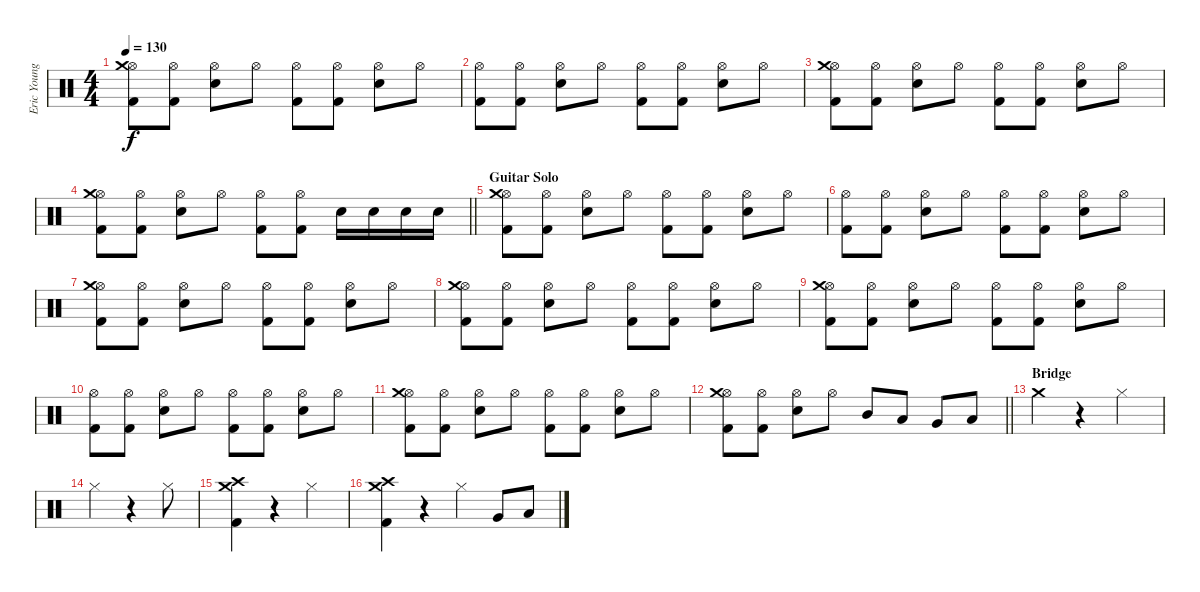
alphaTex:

\track ("Eric Young (Drums)" "Eric Young") {instrument percussion}
\staff {score}
\articulation defaults
\ts (4 4)
\tempo 130
\clef neutral
\ks c
("Hi-Hat (open)" "Kick (hit) 2" "Crash medium (hit)").8{dy f} ("Hi-Hat (open)" "Kick (hit) 2").8 ("Hi-Hat (open)" "Snare (hit) 2").8 "Hi-Hat (open)".8 ("Hi-Hat (open)" "Kick (hit) 2").8 ("Hi-Hat (open)" "Kick (hit) 2").8 ("Hi-Hat (open)" "Snare (hit) 2").8 "Hi-Hat (open)".8 |
("Hi-Hat (open)" "Kick (hit) 2").8 ("Hi-Hat (open)" "Kick (hit) 2").8 ("Hi-Hat (open)" "Snare (hit) 2").8 "Hi-Hat (open)".8 ("Hi-Hat (open)" "Kick (hit) 2").8 ("Hi-Hat (open)" "Kick (hit) 2").8 ("Hi-Hat (open)" "Snare (hit) 2").8 "Hi-Hat (open)".8 |
("Hi-Hat (open)" "Kick (hit) 2" "Crash medium (hit)").8 ("Hi-Hat (open)" "Kick (hit) 2").8 ("Hi-Hat (open)" "Snare (hit) 2").8 "Hi-Hat (open)".8 ("Hi-Hat (open)" "Kick (hit) 2").8 ("Hi-Hat (open)" "Kick (hit) 2").8 ("Hi-Hat (open)" "Snare (hit) 2").8 "Hi-Hat (open)".8 |
\barLineRight lightlight
("Hi-Hat (open)" "Kick (hit) 2" "Crash medium (hit)").8 ("Hi-Hat (open)" "Kick (hit) 2").8 ("Hi-Hat (open)" "Snare (hit) 2").8 "Hi-Hat (open)".8 ("Hi-Hat (open)" "Kick (hit) 2").8 ("Hi-Hat (open)" "Kick (hit) 2").8 "Snare (hit) 2".16 "Snare (hit) 2".16 "Snare (hit) 2".16 "Snare (hit) 2".16 |
\section ("" "Guitar Solo")
("Hi-Hat (open)" "Kick (hit) 2" "Crash medium (hit)").8 ("Hi-Hat (open)" "Kick (hit) 2").8 ("Hi-Hat (open)" "Snare (hit) 2").8 "Hi-Hat (open)".8 ("Hi-Hat (open)" "Kick (hit) 2").8 ("Hi-Hat (open)" "Kick (hit) 2").8 ("Hi-Hat (open)" "Snare (hit) 2").8 "Hi-Hat (open)".8 |
("Hi-Hat (open)" "Kick (hit) 2").8 ("Hi-Hat (open)" "Kick (hit) 2").8 ("Hi-Hat (open)" "Snare (hit) 2").8 "Hi-Hat (open)".8 ("Hi-Hat (open)" "Kick (hit) 2").8 ("Hi-Hat (open)" "Kick (hit) 2").8 ("Hi-Hat (open)" "Snare (hit) 2").8 "Hi-Hat (open)".8 |
("Hi-Hat (open)" "Kick (hit) 2" "Crash medium (hit)").8 ("Hi-Hat (open)" "Kick (hit) 2").8 ("Hi-Hat (open)" "Snare (hit) 2").8 "Hi-Hat (open)".8 ("Hi-Hat (open)" "Kick (hit) 2").8 ("Hi-Hat (open)" "Kick (hit) 2").8 ("Hi-Hat (open)" "Snare (hit) 2").8 "Hi-Hat (open)".8 |
("Hi-Hat (open)" "Kick (hit) 2" "Crash medium (hit)").8 ("Hi-Hat (open)" "Kick (hit) 2").8 ("Hi-Hat (open)" "Snare (hit) 2").8 "Hi-Hat (open)".8 ("Hi-Hat (open)" "Kick (hit) 2").8 ("Hi-Hat (open)" "Kick (hit) 2").8 ("Hi-Hat (open)" "Snare (hit) 2").8 "Hi-Hat (open)".8 |
("Hi-Hat (open)" "Kick (hit) 2" "Crash medium (hit)").8 ("Hi-Hat (open)" "Kick (hit) 2").8 ("Hi-Hat (open)" "Snare (hit) 2").8 "Hi-Hat (open)".8 ("Hi-Hat (open)" "Kick (hit) 2").8 ("Hi-Hat (open)" "Kick (hit) 2").8 ("Hi-Hat (open)" "Snare (hit) 2").8 "Hi-Hat (open)".8 |
("Hi-Hat (open)" "Kick (hit) 2").8 ("Hi-Hat (open)" "Kick (hit) 2").8 ("Hi-Hat (open)" "Snare (hit) 2").8 "Hi-Hat (open)".8 ("Hi-Hat (open)" "Kick (hit) 2").8 ("Hi-Hat (open)" "Kick (hit) 2").8 ("Hi-Hat (open)" "Snare (hit) 2").8 "Hi-Hat (open)".8 |
("Hi-Hat (open)" "Kick (hit) 2" "Crash medium (hit)").8 ("Hi-Hat (open)" "Kick (hit) 2").8 ("Hi-Hat (open)" "Snare (hit) 2").8 "Hi-Hat (open)".8 ("Hi-Hat (open)" "Kick (hit) 2").8 ("Hi-Hat (open)" "Kick (hit) 2").8 ("Hi-Hat (open)" "Snare (hit) 2").8 "Hi-Hat (open)".8 |
\barLineRight lightlight
("Hi-Hat (open)" "Kick (hit) 2" "Crash medium (hit)").8 ("Hi-Hat (open)" "Kick (hit) 2").8 ("Hi-Hat (open)" "Snare (hit) 2").8 "Hi-Hat (open)".8 "Mid Tom (hit)".8 "Low Tom (hit)".8 "Very Low Tom (hit)".8 "Low Floor Tom (hit)".8 |
\section ("" "Bridge")
"Crash medium (hit)".4 r.4 "Hi-Hat (closed)".4 |
"Hi-Hat (closed)".4 r.4 "Hi-Hat (closed)".8 |
("Kick (hit) 2" "Crash high (hit)" "Crash medium (hit)").4 r.4 "Hi-Hat (closed)".4 |
("Kick (hit) 2" "Crash high (hit)" "Crash medium (hit)").4 r.4 "Hi-Hat (closed)".4 "Very Low Tom (hit)".8 "Low Floor Tom (hit)".8
